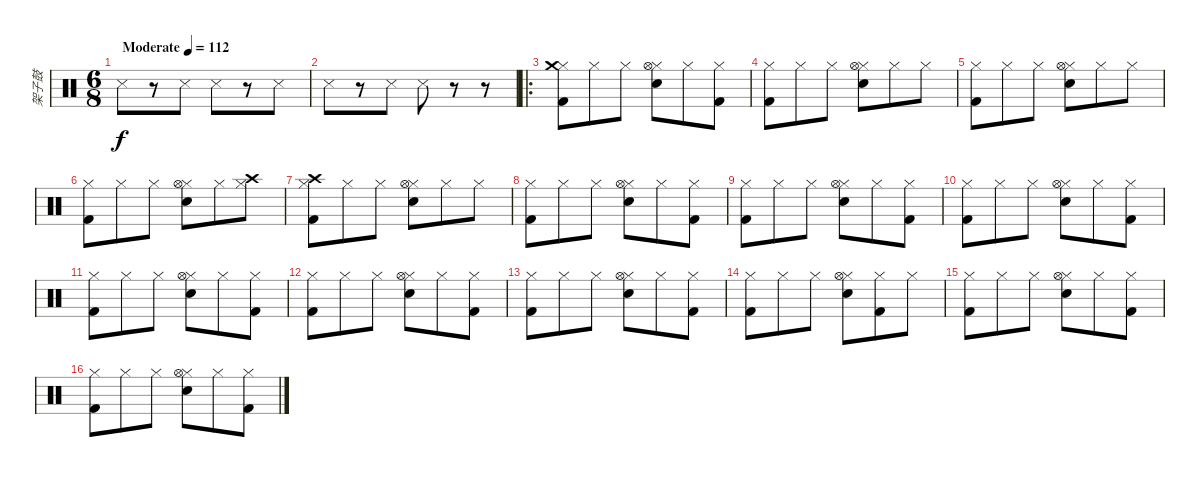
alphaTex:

\track ("架子鼓" "架子鼓") {instrument percussion bank 1}
\staff {score}
\articulation defaults
\ts (6 8)
\tempo (112 "Moderate")
\clef neutral
\ks c "Metronome (hit)".8{dy f}
r.8 "Metronome (hit)".8 "Metronome (hit)".8 r.8 "Metronome (hit)".8 |
"Metronome (hit)".8 r.8 "Metronome (hit)".8 "Metronome (hit)".8 r.8 r.8 |
\ro
("Hi-Hat (closed)" "Kick (hit) 2" "Crash medium (hit)").8 "Hi-Hat (closed)".8 "Hi-Hat (closed)".8 ("Hi-Hat (closed)" "Snare (hit) 2" "Hi-Hat (open)").8 "Hi-Hat (closed)".8 ("Hi-Hat (closed)" "Kick (hit) 2").8 |
("Hi-Hat (closed)" "Kick (hit) 2").8 "Hi-Hat (closed)".8 "Hi-Hat (closed)".8 ("Hi-Hat (closed)" "Snare (hit) 2" "Hi-Hat (open)").8 "Hi-Hat (closed)".8 "Hi-Hat (closed)".8 |
("Hi-Hat (closed)" "Kick (hit) 2").8 "Hi-Hat (closed)".8 "Hi-Hat (closed)".8 ("Hi-Hat (closed)" "Snare (hit) 2" "Hi-Hat (open)").8 "Hi-Hat (closed)".8 "Hi-Hat (closed)".8 |
("Hi-Hat (closed)" "Kick (hit) 2").8 "Hi-Hat (closed)".8 "Hi-Hat (closed)".8 ("Hi-Hat (closed)" "Snare (hit) 2" "Hi-Hat (open)").8 "Hi-Hat (closed)".8 ("Hi-Hat (closed)" "Crash high (hit)").8 |
("Hi-Hat (closed)" "Kick (hit) 2" "Crash high (hit)").8 "Hi-Hat (closed)".8 "Hi-Hat (closed)".8 ("Hi-Hat (closed)" "Snare (hit) 2" "Hi-Hat (open)").8 "Hi-Hat (closed)".8 "Hi-Hat (closed)".8 |
("Hi-Hat (closed)" "Kick (hit) 2").8 "Hi-Hat (closed)".8 "Hi-Hat (closed)".8 ("Hi-Hat (closed)" "Snare (hit) 2" "Hi-Hat (open)").8 "Hi-Hat (closed)".8 ("Hi-Hat (closed)" "Kick (hit) 2").8 |
("Hi-Hat (closed)" "Kick (hit) 2").8 "Hi-Hat (closed)".8 "Hi-Hat (closed)".8 ("Hi-Hat (closed)" "Snare (hit) 2" "Hi-Hat (open)").8 "Hi-Hat (closed)".8 ("Hi-Hat (closed)" "Kick (hit) 2").8 |
("Hi-Hat (closed)" "Kick (hit) 2").8 "Hi-Hat (closed)".8 "Hi-Hat (closed)".8 ("Hi-Hat (closed)" "Snare (hit) 2" "Hi-Hat (open)").8 "Hi-Hat (closed)".8 ("Hi-Hat (closed)" "Kick (hit) 2").8 |
("Hi-Hat (closed)" "Kick (hit) 2").8 "Hi-Hat (closed)".8 "Hi-Hat (closed)".8 ("Hi-Hat (closed)" "Snare (hit) 2" "Hi-Hat (open)").8 "Hi-Hat (closed)".8 ("Hi-Hat (closed)" "Kick (hit) 2").8 |
("Hi-Hat (closed)" "Kick (hit) 2").8 "Hi-Hat (closed)".8 "Hi-Hat (closed)".8 ("Hi-Hat (closed)" "Snare (hit) 2" "Hi-Hat (open)").8 "Hi-Hat (closed)".8 ("Hi-Hat (closed)" "Kick (hit) 2").8 |
("Hi-Hat (closed)" "Kick (hit) 2").8 "Hi-Hat (closed)".8 "Hi-Hat (closed)".8 ("Hi-Hat (closed)" "Snare (hit) 2" "Hi-Hat (open)").8 "Hi-Hat (closed)".8 ("Hi-Hat (closed)" "Kick (hit) 2").8 |
("Hi-Hat (closed)" "Kick (hit) 2").8 "Hi-Hat (closed)".8 "Hi-Hat (closed)".8 ("Hi-Hat (closed)" "Snare (hit) 2" "Hi-Hat (open)").8 ("Hi-Hat (closed)" "Kick (hit) 2").8 "Hi-Hat (closed)".8 |
("Hi-Hat (closed)" "Kick (hit) 2").8 "Hi-Hat (closed)".8 "Hi-Hat (closed)".8 ("Hi-Hat (closed)" "Snare (hit) 2" "Hi-Hat (open)").8 "Hi-Hat (closed)".8 ("Hi-Hat (closed)" "Kick (hit) 2").8 |
("Hi-Hat (closed)" "Kick (hit) 2").8 "Hi-Hat (closed)".8 "Hi-Hat (closed)".8 ("Hi-Hat (closed)" "Snare (hit) 2" "Hi-Hat (open)").8 "Hi-Hat (closed)".8 ("Hi-Hat (closed)" "Kick (hit) 2").8
